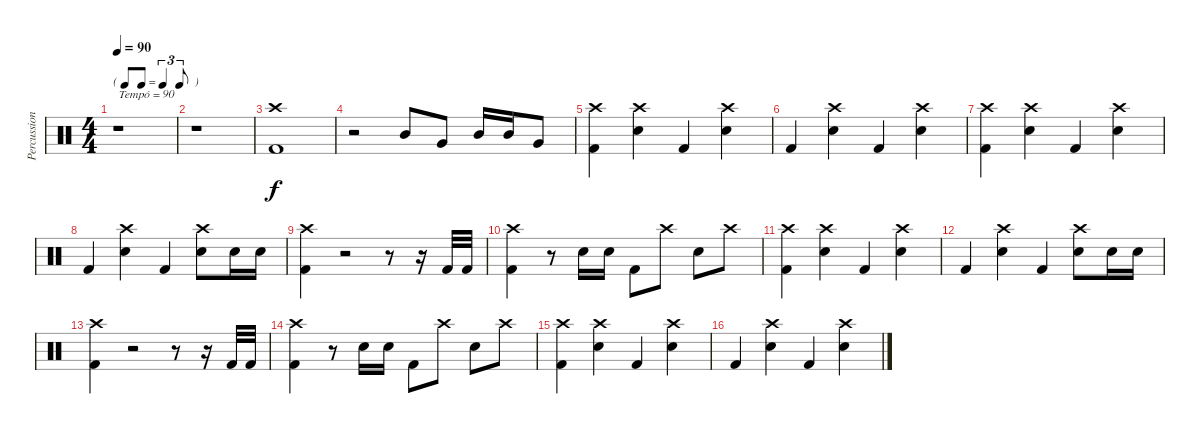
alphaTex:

\track ("Percussion" "Percussion") {instrument percussion}
\staff {score}
\articulation defaults
\ts (4 4)
\tf triplet8th
\tempo 90
\clef neutral
\ks c
r.1{txt "Tempó = 90" dy f} |
r.1 |
("Crash high (hit)" "Kick (hit) 2").1 |
r.2 "Mid Tom (hit)".8 "Very Low Tom (hit)".8 "Mid Tom (hit)".16 "Mid Tom (hit)".16 "Very Low Tom (hit)".8 |
("Crash high (hit)" "Kick (hit) 2").4 ("Crash high (hit)" "Snare (hit) 2").4 "Kick (hit) 2".4 ("Crash high (hit)" "Snare (hit) 2").4 |
"Kick (hit) 2".4 ("Crash high (hit)" "Snare (hit) 2").4 "Kick (hit) 2".4 ("Crash high (hit)" "Snare (hit) 2").4 |
("Crash high (hit)" "Kick (hit) 2").4 ("Crash high (hit)" "Snare (hit) 2").4 "Kick (hit) 2".4 ("Crash high (hit)" "Snare (hit) 2").4 |
"Kick (hit) 2".4 ("Crash high (hit)" "Snare (hit) 2").4 "Kick (hit) 2".4 ("Crash high (hit)" "Snare (hit) 2").8 "Snare (hit) 2".16 "Snare (hit) 2".16 |
("Crash high (hit)" "Kick (hit) 2").4 r.2 r.8 r.16 "Kick (hit) 2".32 "Kick (hit) 2".32 |
("Crash high (hit)" "Kick (hit) 2").4 r.8 "Snare (hit) 2".16 "Snare (hit) 2".16 "Kick (hit) 2".8 "Crash high (hit)".8 "Snare (hit) 2".8 "Crash high (hit)".8 |
("Crash high (hit)" "Kick (hit) 2").4 ("Crash high (hit)" "Snare (hit) 2").4 "Kick (hit) 2".4 ("Crash high (hit)" "Snare (hit) 2").4 |
"Kick (hit) 2".4 ("Crash high (hit)" "Snare (hit) 2").4 "Kick (hit) 2".4 ("Crash high (hit)" "Snare (hit) 2").8 "Snare (hit) 2".16 "Snare (hit) 2".16 |
("Crash high (hit)" "Kick (hit) 2").4 r.2 r.8 r.16 "Kick (hit) 2".32 "Kick (hit) 2".32 |
("Crash high (hit)" "Kick (hit) 2").4 r.8 "Snare (hit) 2".16 "Snare (hit) 2".16 "Kick (hit) 2".8 "Crash high (hit)".8 "Snare (hit) 2".8 "Crash high (hit)".8 |
("Crash high (hit)" "Kick (hit) 2").4 ("Crash high (hit)" "Snare (hit) 2").4 "Kick (hit) 2".4 ("Crash high (hit)" "Snare (hit) 2").4 |
"Kick (hit) 2".4 ("Crash high (hit)" "Snare (hit) 2").4 "Kick (hit) 2".4 ("Crash high (hit)" "Snare (hit) 2").4
